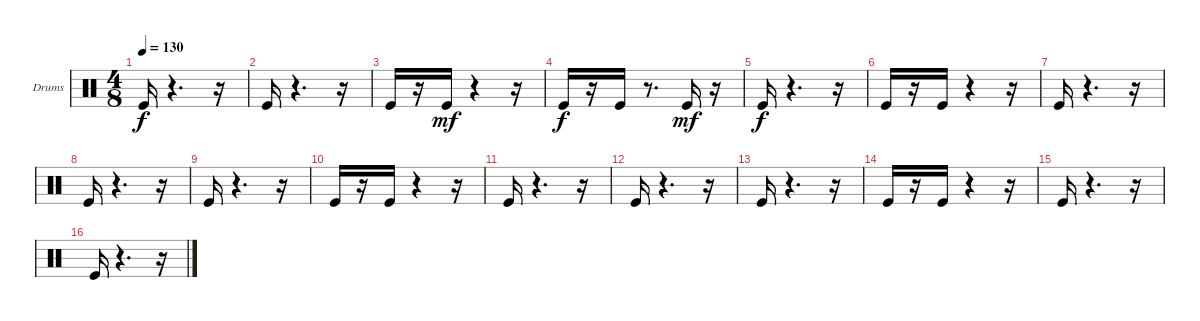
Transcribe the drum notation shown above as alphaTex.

\bracketExtendMode groupsimilarinstruments
\firstSystemTrackNameOrientation horizontal
\otherSystemsTrackNameOrientation horizontal
\track ("Ударные" "Drums") {instrument percussion}
\staff {score}
\articulation defaults
\ts (4 8)
\tempo 130
\clef neutral
\ks c "Kick (hit)".16{dy f}
r.4{d} r.16 |
"Kick (hit)".16 r.4{d} r.16 |
"Kick (hit)".16 r.16 "Kick (hit)".16{dy mf} r.4 r.16 |
"Kick (hit)".16{dy f} r.16 "Kick (hit)".16 r.8{d} "Kick (hit)".16{dy mf} r.16 |
"Kick (hit)".16{dy f} r.4{d} r.16 |
"Kick (hit)".16 r.16 "Kick (hit)".16 r.4 r.16 |
"Kick (hit)".16 r.4{d} r.16 |
"Kick (hit)".16 r.4{d} r.16 |
"Kick (hit)".16 r.4{d} r.16 |
"Kick (hit)".16 r.16 "Kick (hit)".16 r.4 r.16 |
"Kick (hit)".16 r.4{d} r.16 |
"Kick (hit)".16 r.4{d} r.16 |
"Kick (hit)".16 r.4{d} r.16 |
"Kick (hit)".16 r.16 "Kick (hit)".16 r.4 r.16 |
"Kick (hit)".16 r.4{d} r.16 |
"Kick (hit)".16 r.4{d} r.16
